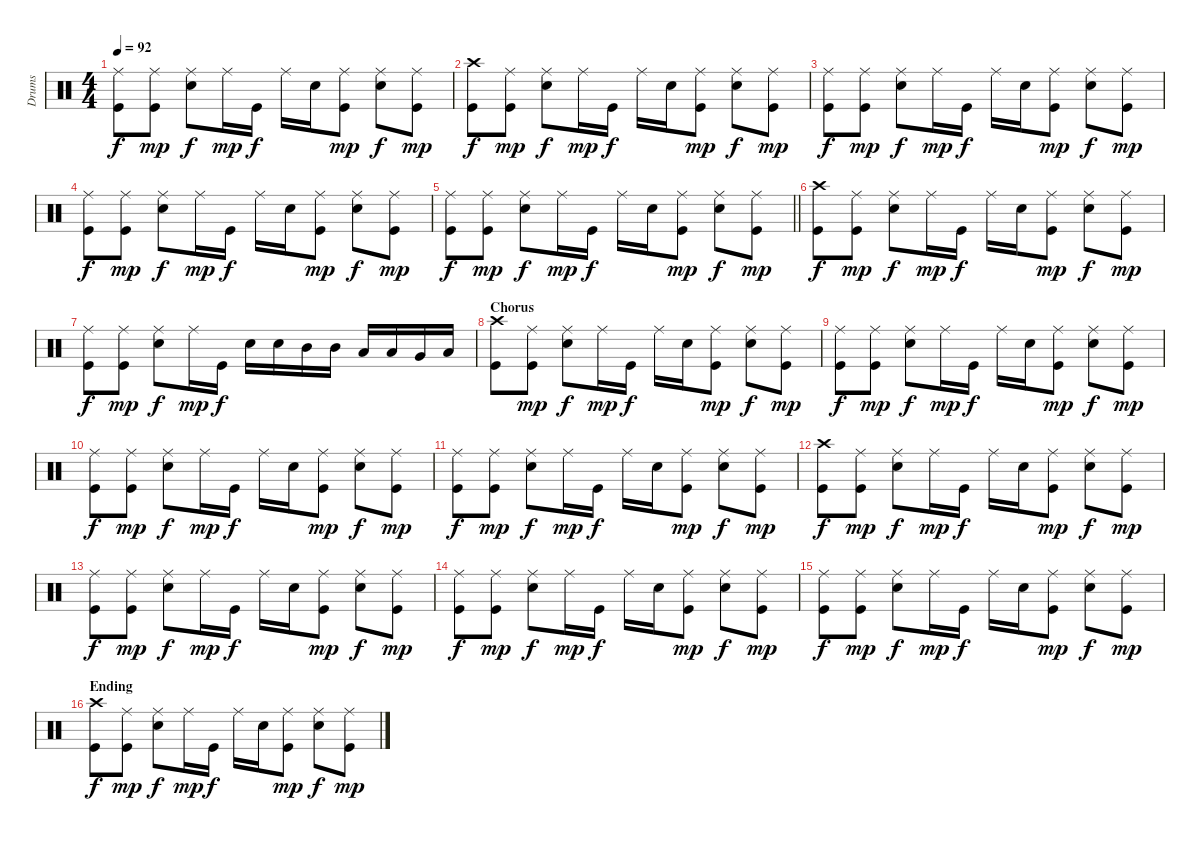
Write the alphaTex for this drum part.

\track ("Drums" "Drums") {instrument percussion}
\staff {score}
\articulation defaults
\ts (4 4)
\tempo 92
\clef neutral
\ks c
("Ride (middle)" "Kick (hit)").8{dy f} ("Ride (middle)" "Kick (hit)").8{dy mp} ("Ride (middle)" "Snare (hit) 2").8{dy f} "Ride (middle)".16{dy mp} "Kick (hit)".16{dy f} "Ride (middle)".16 "Snare (hit) 2".16 ("Ride (middle)" "Kick (hit)").8{dy mp} ("Ride (middle)" "Snare (hit) 2").8{dy f} ("Ride (middle)" "Kick (hit)").8{dy mp} |
("Crash high (hit)" "Kick (hit)").8{dy f} ("Ride (middle)" "Kick (hit)").8{dy mp} ("Ride (middle)" "Snare (hit) 2").8{dy f} "Ride (middle)".16{dy mp} "Kick (hit)".16{dy f} "Ride (middle)".16 "Snare (hit) 2".16 ("Ride (middle)" "Kick (hit)").8{dy mp} ("Ride (middle)" "Snare (hit) 2").8{dy f} ("Ride (middle)" "Kick (hit)").8{dy mp} |
("Ride (middle)" "Kick (hit)").8{dy f} ("Ride (middle)" "Kick (hit)").8{dy mp} ("Ride (middle)" "Snare (hit) 2").8{dy f} "Ride (middle)".16{dy mp} "Kick (hit)".16{dy f} "Ride (middle)".16 "Snare (hit) 2".16 ("Ride (middle)" "Kick (hit)").8{dy mp} ("Ride (middle)" "Snare (hit) 2").8{dy f} ("Ride (middle)" "Kick (hit)").8{dy mp} |
("Ride (middle)" "Kick (hit)").8{dy f} ("Ride (middle)" "Kick (hit)").8{dy mp} ("Ride (middle)" "Snare (hit) 2").8{dy f} "Ride (middle)".16{dy mp} "Kick (hit)".16{dy f} "Ride (middle)".16 "Snare (hit) 2".16 ("Ride (middle)" "Kick (hit)").8{dy mp} ("Ride (middle)" "Snare (hit) 2").8{dy f} ("Ride (middle)" "Kick (hit)").8{dy mp} |
\barLineRight lightlight
("Ride (middle)" "Kick (hit)").8{dy f} ("Ride (middle)" "Kick (hit)").8{dy mp} ("Ride (middle)" "Snare (hit) 2").8{dy f} "Ride (middle)".16{dy mp} "Kick (hit)".16{dy f} "Ride (middle)".16 "Snare (hit) 2".16 ("Ride (middle)" "Kick (hit)").8{dy mp} ("Ride (middle)" "Snare (hit) 2").8{dy f} ("Ride (middle)" "Kick (hit)").8{dy mp} |
("Crash high (hit)" "Kick (hit)").8{dy f} ("Ride (middle)" "Kick (hit)").8{dy mp} ("Ride (middle)" "Snare (hit) 2").8{dy f} "Ride (middle)".16{dy mp} "Kick (hit)".16{dy f} "Ride (middle)".16 "Snare (hit) 2".16 ("Ride (middle)" "Kick (hit)").8{dy mp} ("Ride (middle)" "Snare (hit) 2").8{dy f} ("Ride (middle)" "Kick (hit)").8{dy mp} |
("Ride (middle)" "Kick (hit)").8{dy f} ("Ride (middle)" "Kick (hit)").8{dy mp} ("Ride (middle)" "Snare (hit) 2").8{dy f} "Ride (middle)".16{dy mp} "Kick (hit)".16{dy f} "Snare (hit) 2".16 "Snare (hit) 2".16 "Mid Tom (hit)".16 "Mid Tom (hit)".16 "Low Tom (hit)".16 "Low Tom (hit)".16 "Very Low Tom (hit)".16 "Low Floor Tom (hit)".16 |
\section ("" "Chorus")
("Crash high (hit)" "Kick (hit)").8 ("Ride (middle)" "Kick (hit)").8{dy mp} ("Ride (middle)" "Snare (hit) 2").8{dy f} "Ride (middle)".16{dy mp} "Kick (hit)".16{dy f} "Ride (middle)".16 "Snare (hit) 2".16 ("Ride (middle)" "Kick (hit)").8{dy mp} ("Ride (middle)" "Snare (hit) 2").8{dy f} ("Ride (middle)" "Kick (hit)").8{dy mp} |
("Ride (middle)" "Kick (hit)").8{dy f} ("Ride (middle)" "Kick (hit)").8{dy mp} ("Ride (middle)" "Snare (hit) 2").8{dy f} "Ride (middle)".16{dy mp} "Kick (hit)".16{dy f} "Ride (middle)".16 "Snare (hit) 2".16 ("Ride (middle)" "Kick (hit)").8{dy mp} ("Ride (middle)" "Snare (hit) 2").8{dy f} ("Ride (middle)" "Kick (hit)").8{dy mp} |
("Ride (middle)" "Kick (hit)").8{dy f} ("Ride (middle)" "Kick (hit)").8{dy mp} ("Ride (middle)" "Snare (hit) 2").8{dy f} "Ride (middle)".16{dy mp} "Kick (hit)".16{dy f} "Ride (middle)".16 "Snare (hit) 2".16 ("Ride (middle)" "Kick (hit)").8{dy mp} ("Ride (middle)" "Snare (hit) 2").8{dy f} ("Ride (middle)" "Kick (hit)").8{dy mp} |
("Ride (middle)" "Kick (hit)").8{dy f} ("Ride (middle)" "Kick (hit)").8{dy mp} ("Ride (middle)" "Snare (hit) 2").8{dy f} "Ride (middle)".16{dy mp} "Kick (hit)".16{dy f} "Ride (middle)".16 "Snare (hit) 2".16 ("Ride (middle)" "Kick (hit)").8{dy mp} ("Ride (middle)" "Snare (hit) 2").8{dy f} ("Ride (middle)" "Kick (hit)").8{dy mp} |
("Crash high (hit)" "Kick (hit)").8{dy f} ("Ride (middle)" "Kick (hit)").8{dy mp} ("Ride (middle)" "Snare (hit) 2").8{dy f} "Ride (middle)".16{dy mp} "Kick (hit)".16{dy f} "Ride (middle)".16 "Snare (hit) 2".16 ("Ride (middle)" "Kick (hit)").8{dy mp} ("Ride (middle)" "Snare (hit) 2").8{dy f} ("Ride (middle)" "Kick (hit)").8{dy mp} |
("Ride (middle)" "Kick (hit)").8{dy f} ("Ride (middle)" "Kick (hit)").8{dy mp} ("Ride (middle)" "Snare (hit) 2").8{dy f} "Ride (middle)".16{dy mp} "Kick (hit)".16{dy f} "Ride (middle)".16 "Snare (hit) 2".16 ("Ride (middle)" "Kick (hit)").8{dy mp} ("Ride (middle)" "Snare (hit) 2").8{dy f} ("Ride (middle)" "Kick (hit)").8{dy mp} |
("Ride (middle)" "Kick (hit)").8{dy f} ("Ride (middle)" "Kick (hit)").8{dy mp} ("Ride (middle)" "Snare (hit) 2").8{dy f} "Ride (middle)".16{dy mp} "Kick (hit)".16{dy f} "Ride (middle)".16 "Snare (hit) 2".16 ("Ride (middle)" "Kick (hit)").8{dy mp} ("Ride (middle)" "Snare (hit) 2").8{dy f} ("Ride (middle)" "Kick (hit)").8{dy mp} |
("Ride (middle)" "Kick (hit)").8{dy f} ("Ride (middle)" "Kick (hit)").8{dy mp} ("Ride (middle)" "Snare (hit) 2").8{dy f} "Ride (middle)".16{dy mp} "Kick (hit)".16{dy f} "Ride (middle)".16 "Snare (hit) 2".16 ("Ride (middle)" "Kick (hit)").8{dy mp} ("Ride (middle)" "Snare (hit) 2").8{dy f} ("Ride (middle)" "Kick (hit)").8{dy mp} |
\section ("" "Ending")
("Crash high (hit)" "Kick (hit)").8{dy f} ("Ride (middle)" "Kick (hit)").8{dy mp} ("Ride (middle)" "Snare (hit) 2").8{dy f} "Ride (middle)".16{dy mp} "Kick (hit)".16{dy f} "Ride (middle)".16 "Snare (hit) 2".16 ("Ride (middle)" "Kick (hit)").8{dy mp} ("Ride (middle)" "Snare (hit) 2").8{dy f} ("Ride (middle)" "Kick (hit)").8{dy mp}
